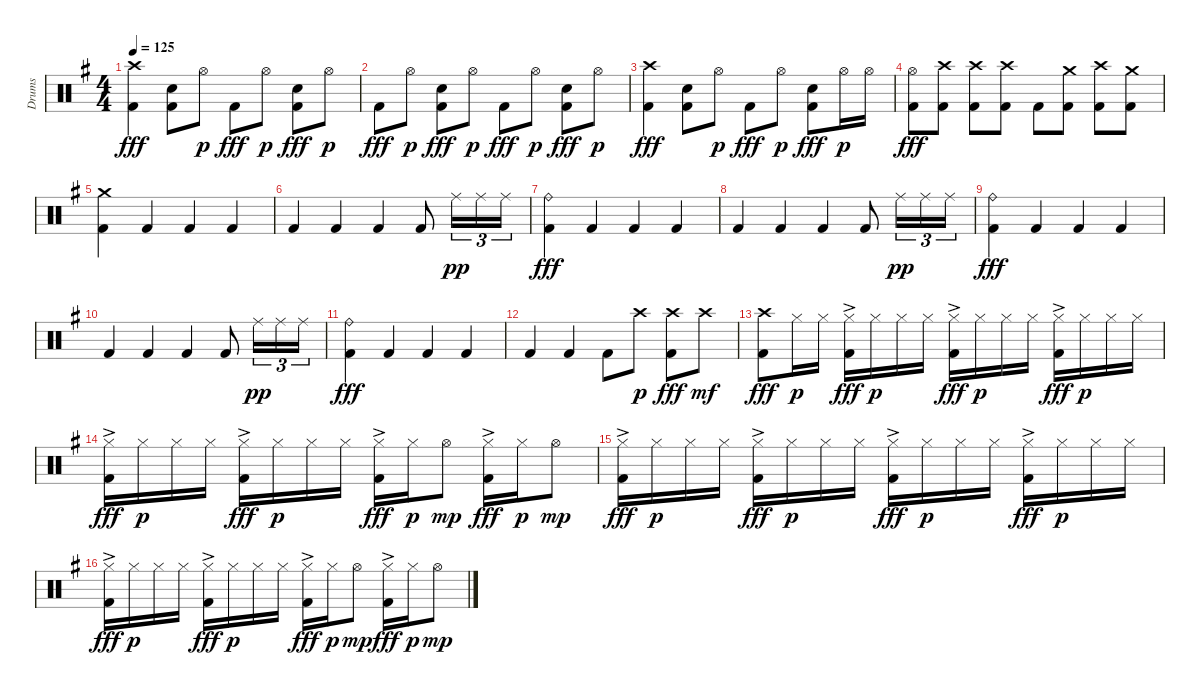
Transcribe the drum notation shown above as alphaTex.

\track ("Drums" "Drums") {instrument percussion}
\staff {score}
\articulation defaults
\ts (4 4)
\tempo 125
\clef neutral
\ks eminor
("Crash high (hit)" "Kick (hit) 2").4{dy fff} ("Electric Snare (hit)" "Kick (hit) 2").8 "Hi-Hat (open)".8{dy p} "Kick (hit) 2".8{dy fff} "Hi-Hat (open)".8{dy p} ("Electric Snare (hit)" "Kick (hit) 2").8{dy fff} "Hi-Hat (open)".8{dy p} |
"Kick (hit) 2".8{dy fff} "Hi-Hat (open)".8{dy p} ("Electric Snare (hit)" "Kick (hit) 2").8{dy fff} "Hi-Hat (open)".8{dy p} "Kick (hit) 2".8{dy fff} "Hi-Hat (open)".8{dy p} ("Electric Snare (hit)" "Kick (hit) 2").8{dy fff} "Hi-Hat (open)".8{dy p} |
("Crash high (hit)" "Kick (hit) 2").4{dy fff} ("Electric Snare (hit)" "Kick (hit) 2").8 "Hi-Hat (open)".8{dy p} "Kick (hit) 2".8{dy fff} "Hi-Hat (open)".8{dy p} ("Electric Snare (hit)" "Kick (hit) 2").8{dy fff} "Hi-Hat (open)".16{dy p} "Hi-Hat (open)".16 |
("Hi-Hat (open)" "Kick (hit) 2").8{dy fff} ("Crash high (hit)" "Kick (hit) 2").8 ("Crash high (hit)" "Kick (hit) 2").8 ("Crash high (hit)" "Kick (hit) 2").8 "Kick (hit) 2".8 ("Crash medium (hit)" "Kick (hit) 2").8 ("Crash high (hit)" "Kick (hit) 2").8 ("Crash medium (hit)" "Kick (hit) 2").8 |
("Crash medium (hit)" "Kick (hit) 2").4 "Kick (hit) 2".4 "Kick (hit) 2".4 "Kick (hit) 2".4 |
"Kick (hit) 2".4 "Kick (hit) 2".4 "Kick (hit) 2".4 "Kick (hit) 2".8 "Ride (middle)".16{tu (3 2) dy pp} "Ride (middle)".16{tu (3 2)} "Ride (middle)".16{tu (3 2)} |
("Ride (bell)" "Kick (hit) 2").4{dy fff} "Kick (hit) 2".4 "Kick (hit) 2".4 "Kick (hit) 2".4 |
"Kick (hit) 2".4 "Kick (hit) 2".4 "Kick (hit) 2".4 "Kick (hit) 2".8 "Ride (middle)".16{tu (3 2) dy pp} "Ride (middle)".16{tu (3 2)} "Ride (middle)".16{tu (3 2)} |
("Ride (bell)" "Kick (hit) 2").4{dy fff} "Kick (hit) 2".4 "Kick (hit) 2".4 "Kick (hit) 2".4 |
"Kick (hit) 2".4 "Kick (hit) 2".4 "Kick (hit) 2".4 "Kick (hit) 2".8 "Ride (middle)".16{tu (3 2) dy pp} "Ride (middle)".16{tu (3 2)} "Ride (middle)".16{tu (3 2)} |
("Ride (bell)" "Kick (hit) 2").4{dy fff} "Kick (hit) 2".4 "Kick (hit) 2".4 "Kick (hit) 2".4 |
"Kick (hit) 2".4 "Kick (hit) 2".4 "Kick (hit) 2".8 "Crash high (hit)".8{dy p} ("Crash high (hit)" "Kick (hit) 2").8{dy fff} "Crash high (hit)".8{dy mf} |
("Crash high (hit)" "Kick (hit) 2").8{dy fff} "Hi-Hat (closed)".16{dy p} "Hi-Hat (closed)".16 ("Hi-Hat (closed)"{ac} "Kick (hit) 2").16{dy fff} "Hi-Hat (closed)".16{dy p} "Hi-Hat (closed)".16 "Hi-Hat (closed)".16 ("Hi-Hat (closed)"{ac} "Kick (hit) 2").16{dy fff} "Hi-Hat (closed)".16{dy p} "Hi-Hat (closed)".16 "Hi-Hat (closed)".16 ("Hi-Hat (closed)"{ac} "Kick (hit) 2").16{dy fff} "Hi-Hat (closed)".16{dy p} "Hi-Hat (closed)".16 "Hi-Hat (closed)".16 |
("Hi-Hat (closed)"{ac} "Kick (hit) 2").16{dy fff} "Hi-Hat (closed)".16{dy p} "Hi-Hat (closed)".16 "Hi-Hat (closed)".16 ("Hi-Hat (closed)"{ac} "Kick (hit) 2").16{dy fff} "Hi-Hat (closed)".16{dy p} "Hi-Hat (closed)".16 "Hi-Hat (closed)".16 ("Hi-Hat (closed)"{ac} "Kick (hit) 2").16{dy fff} "Hi-Hat (closed)".16{dy p} "Hi-Hat (open)".8{dy mp} ("Hi-Hat (closed)"{ac} "Kick (hit) 2").16{dy fff} "Hi-Hat (closed)".16{dy p} "Hi-Hat (open)".8{dy mp} |
("Hi-Hat (closed)"{ac} "Kick (hit) 2").16{dy fff} "Hi-Hat (closed)".16{dy p} "Hi-Hat (closed)".16 "Hi-Hat (closed)".16 ("Hi-Hat (closed)"{ac} "Kick (hit) 2").16{dy fff} "Hi-Hat (closed)".16{dy p} "Hi-Hat (closed)".16 "Hi-Hat (closed)".16 ("Hi-Hat (closed)"{ac} "Kick (hit) 2").16{dy fff} "Hi-Hat (closed)".16{dy p} "Hi-Hat (closed)".16 "Hi-Hat (closed)".16 ("Hi-Hat (closed)"{ac} "Kick (hit) 2").16{dy fff} "Hi-Hat (closed)".16{dy p} "Hi-Hat (closed)".16 "Hi-Hat (closed)".16 |
("Hi-Hat (closed)"{ac} "Kick (hit) 2").16{dy fff} "Hi-Hat (closed)".16{dy p} "Hi-Hat (closed)".16 "Hi-Hat (closed)".16 ("Hi-Hat (closed)"{ac} "Kick (hit) 2").16{dy fff} "Hi-Hat (closed)".16{dy p} "Hi-Hat (closed)".16 "Hi-Hat (closed)".16 ("Hi-Hat (closed)"{ac} "Kick (hit) 2").16{dy fff} "Hi-Hat (closed)".16{dy p} "Hi-Hat (open)".8{dy mp} ("Hi-Hat (closed)"{ac} "Kick (hit) 2").16{dy fff} "Hi-Hat (closed)".16{dy p} "Hi-Hat (open)".8{dy mp}
